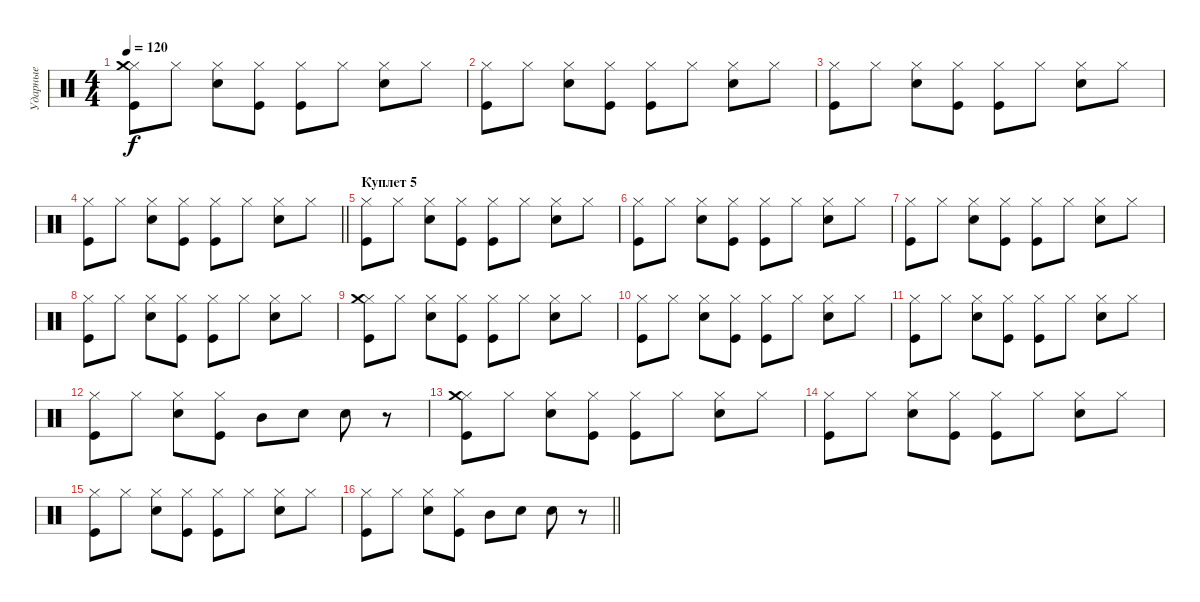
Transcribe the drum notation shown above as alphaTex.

\track ("Ударные" "Ударные") {instrument percussion}
\staff {score}
\articulation defaults
\ts (4 4)
\tempo 120
\clef neutral
\ks c
("Kick (hit)" "Hi-Hat (closed)" "Crash medium (hit)").8{dy f} "Hi-Hat (closed)".8 ("Snare (hit) 2" "Hi-Hat (closed)").8 ("Kick (hit)" "Hi-Hat (closed)").8 ("Hi-Hat (closed)" "Kick (hit)").8 "Hi-Hat (closed)".8 ("Snare (hit) 2" "Hi-Hat (closed)").8 "Hi-Hat (closed)".8 |
("Kick (hit)" "Hi-Hat (closed)").8 "Hi-Hat (closed)".8 ("Snare (hit) 2" "Hi-Hat (closed)").8 ("Kick (hit)" "Hi-Hat (closed)").8 ("Hi-Hat (closed)" "Kick (hit)").8 "Hi-Hat (closed)".8 ("Snare (hit) 2" "Hi-Hat (closed)").8 "Hi-Hat (closed)".8 |
("Kick (hit)" "Hi-Hat (closed)").8 "Hi-Hat (closed)".8 ("Snare (hit) 2" "Hi-Hat (closed)").8 ("Kick (hit)" "Hi-Hat (closed)").8 ("Hi-Hat (closed)" "Kick (hit)").8 "Hi-Hat (closed)".8 ("Snare (hit) 2" "Hi-Hat (closed)").8 "Hi-Hat (closed)".8 |
\barLineRight lightlight
("Kick (hit)" "Hi-Hat (closed)").8 "Hi-Hat (closed)".8 ("Snare (hit) 2" "Hi-Hat (closed)").8 ("Kick (hit)" "Hi-Hat (closed)").8 ("Hi-Hat (closed)" "Kick (hit)").8 "Hi-Hat (closed)".8 ("Snare (hit) 2" "Hi-Hat (closed)").8 "Hi-Hat (closed)".8 |
\section ("" "Куплет 5")
("Kick (hit)" "Hi-Hat (closed)").8 "Hi-Hat (closed)".8 ("Snare (hit) 2" "Hi-Hat (closed)").8 ("Kick (hit)" "Hi-Hat (closed)").8 ("Hi-Hat (closed)" "Kick (hit)").8 "Hi-Hat (closed)".8 ("Snare (hit) 2" "Hi-Hat (closed)").8 "Hi-Hat (closed)".8 |
("Kick (hit)" "Hi-Hat (closed)").8 "Hi-Hat (closed)".8 ("Snare (hit) 2" "Hi-Hat (closed)").8 ("Kick (hit)" "Hi-Hat (closed)").8 ("Hi-Hat (closed)" "Kick (hit)").8 "Hi-Hat (closed)".8 ("Snare (hit) 2" "Hi-Hat (closed)").8 "Hi-Hat (closed)".8 |
("Kick (hit)" "Hi-Hat (closed)").8 "Hi-Hat (closed)".8 ("Snare (hit) 2" "Hi-Hat (closed)").8 ("Kick (hit)" "Hi-Hat (closed)").8 ("Hi-Hat (closed)" "Kick (hit)").8 "Hi-Hat (closed)".8 ("Snare (hit) 2" "Hi-Hat (closed)").8 "Hi-Hat (closed)".8 |
("Kick (hit)" "Hi-Hat (closed)").8 "Hi-Hat (closed)".8 ("Snare (hit) 2" "Hi-Hat (closed)").8 ("Kick (hit)" "Hi-Hat (closed)").8 ("Hi-Hat (closed)" "Kick (hit)").8 "Hi-Hat (closed)".8 ("Snare (hit) 2" "Hi-Hat (closed)").8 "Hi-Hat (closed)".8 |
("Kick (hit)" "Hi-Hat (closed)" "Crash medium (hit)").8 "Hi-Hat (closed)".8 ("Snare (hit) 2" "Hi-Hat (closed)").8 ("Kick (hit)" "Hi-Hat (closed)").8 ("Hi-Hat (closed)" "Kick (hit)").8 "Hi-Hat (closed)".8 ("Snare (hit) 2" "Hi-Hat (closed)").8 "Hi-Hat (closed)".8 |
("Kick (hit)" "Hi-Hat (closed)").8 "Hi-Hat (closed)".8 ("Snare (hit) 2" "Hi-Hat (closed)").8 ("Kick (hit)" "Hi-Hat (closed)").8 ("Hi-Hat (closed)" "Kick (hit)").8 "Hi-Hat (closed)".8 ("Snare (hit) 2" "Hi-Hat (closed)").8 "Hi-Hat (closed)".8 |
("Kick (hit)" "Hi-Hat (closed)").8 "Hi-Hat (closed)".8 ("Snare (hit) 2" "Hi-Hat (closed)").8 ("Kick (hit)" "Hi-Hat (closed)").8 ("Hi-Hat (closed)" "Kick (hit)").8 "Hi-Hat (closed)".8 ("Snare (hit) 2" "Hi-Hat (closed)").8 "Hi-Hat (closed)".8 |
("Kick (hit)" "Hi-Hat (closed)").8 "Hi-Hat (closed)".8 ("Snare (hit) 2" "Hi-Hat (closed)").8 ("Kick (hit)" "Hi-Hat (closed)").8 "Mid Tom (hit)".8 "Snare (hit) 2".8 "Snare (hit) 2".8 r.8 |
("Kick (hit)" "Hi-Hat (closed)" "Crash medium (hit)").8 "Hi-Hat (closed)".8 ("Snare (hit) 2" "Hi-Hat (closed)").8 ("Kick (hit)" "Hi-Hat (closed)").8 ("Hi-Hat (closed)" "Kick (hit)").8 "Hi-Hat (closed)".8 ("Snare (hit) 2" "Hi-Hat (closed)").8 "Hi-Hat (closed)".8 |
("Kick (hit)" "Hi-Hat (closed)").8 "Hi-Hat (closed)".8 ("Snare (hit) 2" "Hi-Hat (closed)").8 ("Kick (hit)" "Hi-Hat (closed)").8 ("Hi-Hat (closed)" "Kick (hit)").8 "Hi-Hat (closed)".8 ("Snare (hit) 2" "Hi-Hat (closed)").8 "Hi-Hat (closed)".8 |
("Kick (hit)" "Hi-Hat (closed)").8 "Hi-Hat (closed)".8 ("Snare (hit) 2" "Hi-Hat (closed)").8 ("Kick (hit)" "Hi-Hat (closed)").8 ("Hi-Hat (closed)" "Kick (hit)").8 "Hi-Hat (closed)".8 ("Snare (hit) 2" "Hi-Hat (closed)").8 "Hi-Hat (closed)".8 |
\barLineRight lightlight
("Kick (hit)" "Hi-Hat (closed)").8 "Hi-Hat (closed)".8 ("Snare (hit) 2" "Hi-Hat (closed)").8 ("Kick (hit)" "Hi-Hat (closed)").8 "Mid Tom (hit)".8 "Snare (hit) 2".8 "Snare (hit) 2".8 r.8
